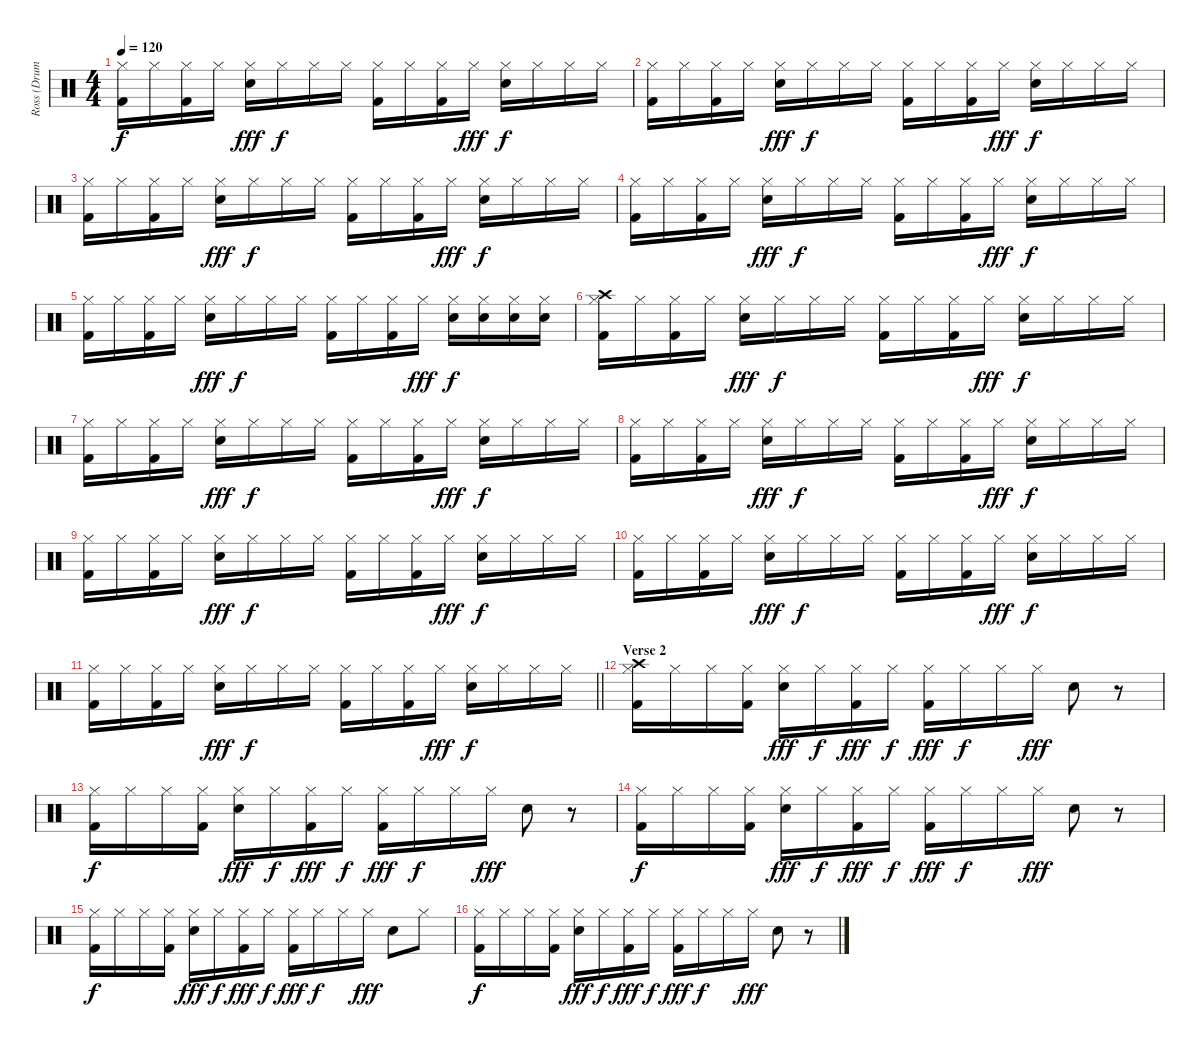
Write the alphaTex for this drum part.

\track ("Ross (Drums)" "Ross (Drum") {instrument percussion}
\staff {score}
\articulation defaults
\ts (4 4)
\tempo 120
\clef neutral
\ks c
("Hi-Hat (closed)" "Kick (hit) 2").16{dy f} "Hi-Hat (closed)".16 ("Hi-Hat (closed)" "Kick (hit) 2").16 "Hi-Hat (closed)".16 ("Hi-Hat (closed)" "Snare (hit) 2").16{dy fff} "Hi-Hat (closed)".16{dy f} "Hi-Hat (closed)".16 "Hi-Hat (closed)".16 ("Hi-Hat (closed)" "Kick (hit) 2").16 "Hi-Hat (closed)".16 ("Hi-Hat (closed)" "Kick (hit) 2").16 "Hi-Hat (closed)".16{dy fff} ("Hi-Hat (closed)" "Snare (hit) 2").16{dy f} "Hi-Hat (closed)".16 "Hi-Hat (closed)".16 "Hi-Hat (closed)".16 |
("Hi-Hat (closed)" "Kick (hit) 2").16 "Hi-Hat (closed)".16 ("Hi-Hat (closed)" "Kick (hit) 2").16 "Hi-Hat (closed)".16 ("Hi-Hat (closed)" "Snare (hit) 2").16{dy fff} "Hi-Hat (closed)".16{dy f} "Hi-Hat (closed)".16 "Hi-Hat (closed)".16 ("Hi-Hat (closed)" "Kick (hit) 2").16 "Hi-Hat (closed)".16 ("Hi-Hat (closed)" "Kick (hit) 2").16 "Hi-Hat (closed)".16{dy fff} ("Hi-Hat (closed)" "Snare (hit) 2").16{dy f} "Hi-Hat (closed)".16 "Hi-Hat (closed)".16 "Hi-Hat (closed)".16 |
("Hi-Hat (closed)" "Kick (hit) 2").16 "Hi-Hat (closed)".16 ("Hi-Hat (closed)" "Kick (hit) 2").16 "Hi-Hat (closed)".16 ("Hi-Hat (closed)" "Snare (hit) 2").16{dy fff} "Hi-Hat (closed)".16{dy f} "Hi-Hat (closed)".16 "Hi-Hat (closed)".16 ("Hi-Hat (closed)" "Kick (hit) 2").16 "Hi-Hat (closed)".16 ("Hi-Hat (closed)" "Kick (hit) 2").16 "Hi-Hat (closed)".16{dy fff} ("Hi-Hat (closed)" "Snare (hit) 2").16{dy f} "Hi-Hat (closed)".16 "Hi-Hat (closed)".16 "Hi-Hat (closed)".16 |
("Hi-Hat (closed)" "Kick (hit) 2").16 "Hi-Hat (closed)".16 ("Hi-Hat (closed)" "Kick (hit) 2").16 "Hi-Hat (closed)".16 ("Hi-Hat (closed)" "Snare (hit) 2").16{dy fff} "Hi-Hat (closed)".16{dy f} "Hi-Hat (closed)".16 "Hi-Hat (closed)".16 ("Hi-Hat (closed)" "Kick (hit) 2").16 "Hi-Hat (closed)".16 ("Hi-Hat (closed)" "Kick (hit) 2").16 "Hi-Hat (closed)".16{dy fff} ("Hi-Hat (closed)" "Snare (hit) 2").16{dy f} "Hi-Hat (closed)".16 "Hi-Hat (closed)".16 "Hi-Hat (closed)".16 |
("Hi-Hat (closed)" "Kick (hit) 2").16 "Hi-Hat (closed)".16 ("Hi-Hat (closed)" "Kick (hit) 2").16 "Hi-Hat (closed)".16 ("Hi-Hat (closed)" "Snare (hit) 2").16{dy fff} "Hi-Hat (closed)".16{dy f} "Hi-Hat (closed)".16 "Hi-Hat (closed)".16 ("Hi-Hat (closed)" "Kick (hit) 2").16 "Hi-Hat (closed)".16 ("Hi-Hat (closed)" "Kick (hit) 2").16 "Hi-Hat (closed)".16{dy fff} ("Hi-Hat (closed)" "Snare (hit) 2").16{dy f} ("Hi-Hat (closed)" "Snare (hit) 2").16 ("Hi-Hat (closed)" "Snare (hit) 2").16 ("Hi-Hat (closed)" "Snare (hit) 2").16 |
("Crash high (hit)" "Hi-Hat (closed)" "Kick (hit) 2").16 "Hi-Hat (closed)".16 ("Hi-Hat (closed)" "Kick (hit) 2").16 "Hi-Hat (closed)".16 ("Hi-Hat (closed)" "Snare (hit) 2").16{dy fff} "Hi-Hat (closed)".16{dy f} "Hi-Hat (closed)".16 "Hi-Hat (closed)".16 ("Hi-Hat (closed)" "Kick (hit) 2").16 "Hi-Hat (closed)".16 ("Hi-Hat (closed)" "Kick (hit) 2").16 "Hi-Hat (closed)".16{dy fff} ("Hi-Hat (closed)" "Snare (hit) 2").16{dy f} "Hi-Hat (closed)".16 "Hi-Hat (closed)".16 "Hi-Hat (closed)".16 |
("Hi-Hat (closed)" "Kick (hit) 2").16 "Hi-Hat (closed)".16 ("Hi-Hat (closed)" "Kick (hit) 2").16 "Hi-Hat (closed)".16 ("Hi-Hat (closed)" "Snare (hit) 2").16{dy fff} "Hi-Hat (closed)".16{dy f} "Hi-Hat (closed)".16 "Hi-Hat (closed)".16 ("Hi-Hat (closed)" "Kick (hit) 2").16 "Hi-Hat (closed)".16 ("Hi-Hat (closed)" "Kick (hit) 2").16 "Hi-Hat (closed)".16{dy fff} ("Hi-Hat (closed)" "Snare (hit) 2").16{dy f} "Hi-Hat (closed)".16 "Hi-Hat (closed)".16 "Hi-Hat (closed)".16 |
("Hi-Hat (closed)" "Kick (hit) 2").16 "Hi-Hat (closed)".16 ("Hi-Hat (closed)" "Kick (hit) 2").16 "Hi-Hat (closed)".16 ("Hi-Hat (closed)" "Snare (hit) 2").16{dy fff} "Hi-Hat (closed)".16{dy f} "Hi-Hat (closed)".16 "Hi-Hat (closed)".16 ("Hi-Hat (closed)" "Kick (hit) 2").16 "Hi-Hat (closed)".16 ("Hi-Hat (closed)" "Kick (hit) 2").16 "Hi-Hat (closed)".16{dy fff} ("Hi-Hat (closed)" "Snare (hit) 2").16{dy f} "Hi-Hat (closed)".16 "Hi-Hat (closed)".16 "Hi-Hat (closed)".16 |
("Hi-Hat (closed)" "Kick (hit) 2").16 "Hi-Hat (closed)".16 ("Hi-Hat (closed)" "Kick (hit) 2").16 "Hi-Hat (closed)".16 ("Hi-Hat (closed)" "Snare (hit) 2").16{dy fff} "Hi-Hat (closed)".16{dy f} "Hi-Hat (closed)".16 "Hi-Hat (closed)".16 ("Hi-Hat (closed)" "Kick (hit) 2").16 "Hi-Hat (closed)".16 ("Hi-Hat (closed)" "Kick (hit) 2").16 "Hi-Hat (closed)".16{dy fff} ("Hi-Hat (closed)" "Snare (hit) 2").16{dy f} "Hi-Hat (closed)".16 "Hi-Hat (closed)".16 "Hi-Hat (closed)".16 |
("Hi-Hat (closed)" "Kick (hit) 2").16 "Hi-Hat (closed)".16 ("Hi-Hat (closed)" "Kick (hit) 2").16 "Hi-Hat (closed)".16 ("Hi-Hat (closed)" "Snare (hit) 2").16{dy fff} "Hi-Hat (closed)".16{dy f} "Hi-Hat (closed)".16 "Hi-Hat (closed)".16 ("Hi-Hat (closed)" "Kick (hit) 2").16 "Hi-Hat (closed)".16 ("Hi-Hat (closed)" "Kick (hit) 2").16 "Hi-Hat (closed)".16{dy fff} ("Hi-Hat (closed)" "Snare (hit) 2").16{dy f} "Hi-Hat (closed)".16 "Hi-Hat (closed)".16 "Hi-Hat (closed)".16 |
\barLineRight lightlight
("Hi-Hat (closed)" "Kick (hit) 2").16 "Hi-Hat (closed)".16 ("Hi-Hat (closed)" "Kick (hit) 2").16 "Hi-Hat (closed)".16 ("Hi-Hat (closed)" "Snare (hit) 2").16{dy fff} "Hi-Hat (closed)".16{dy f} "Hi-Hat (closed)".16 "Hi-Hat (closed)".16 ("Hi-Hat (closed)" "Kick (hit) 2").16 "Hi-Hat (closed)".16 ("Hi-Hat (closed)" "Kick (hit) 2").16 "Hi-Hat (closed)".16{dy fff} ("Hi-Hat (closed)" "Snare (hit) 2").16{dy f} "Hi-Hat (closed)".16 "Hi-Hat (closed)".16 "Hi-Hat (closed)".16 |
\section ("" "Verse 2")
("Crash high (hit)" "Hi-Hat (closed)" "Kick (hit) 2").16 "Hi-Hat (closed)".16 "Hi-Hat (closed)".16 ("Hi-Hat (closed)" "Kick (hit) 2").16 ("Hi-Hat (closed)" "Snare (hit) 2").16{dy fff} "Hi-Hat (closed)".16{dy f} ("Hi-Hat (closed)" "Kick (hit) 2").16{dy fff} "Hi-Hat (closed)".16{dy f} ("Hi-Hat (closed)" "Kick (hit) 2").16{dy fff} "Hi-Hat (closed)".16{dy f} "Hi-Hat (closed)".16 "Hi-Hat (closed)".16{dy fff} "Snare (hit) 2".8 r.8 |
("Hi-Hat (closed)" "Kick (hit) 2").16{dy f} "Hi-Hat (closed)".16 "Hi-Hat (closed)".16 ("Hi-Hat (closed)" "Kick (hit) 2").16 ("Hi-Hat (closed)" "Snare (hit) 2").16{dy fff} "Hi-Hat (closed)".16{dy f} ("Hi-Hat (closed)" "Kick (hit) 2").16{dy fff} "Hi-Hat (closed)".16{dy f} ("Hi-Hat (closed)" "Kick (hit) 2").16{dy fff} "Hi-Hat (closed)".16{dy f} "Hi-Hat (closed)".16 "Hi-Hat (closed)".16{dy fff} "Snare (hit) 2".8 r.8 |
("Hi-Hat (closed)" "Kick (hit) 2").16{dy f} "Hi-Hat (closed)".16 "Hi-Hat (closed)".16 ("Hi-Hat (closed)" "Kick (hit) 2").16 ("Hi-Hat (closed)" "Snare (hit) 2").16{dy fff} "Hi-Hat (closed)".16{dy f} ("Hi-Hat (closed)" "Kick (hit) 2").16{dy fff} "Hi-Hat (closed)".16{dy f} ("Hi-Hat (closed)" "Kick (hit) 2").16{dy fff} "Hi-Hat (closed)".16{dy f} "Hi-Hat (closed)".16 "Hi-Hat (closed)".16{dy fff} "Snare (hit) 2".8 r.8 |
("Hi-Hat (closed)" "Kick (hit) 2").16{dy f} "Hi-Hat (closed)".16 "Hi-Hat (closed)".16 ("Hi-Hat (closed)" "Kick (hit) 2").16 ("Hi-Hat (closed)" "Snare (hit) 2").16{dy fff} "Hi-Hat (closed)".16{dy f} ("Hi-Hat (closed)" "Kick (hit) 2").16{dy fff} "Hi-Hat (closed)".16{dy f} ("Hi-Hat (closed)" "Kick (hit) 2").16{dy fff} "Hi-Hat (closed)".16{dy f} "Hi-Hat (closed)".16 "Hi-Hat (closed)".16{dy fff} "Snare (hit) 2".8 "Hi-Hat (closed)".8 |
("Hi-Hat (closed)" "Kick (hit) 2").16{dy f} "Hi-Hat (closed)".16 "Hi-Hat (closed)".16 ("Hi-Hat (closed)" "Kick (hit) 2").16 ("Hi-Hat (closed)" "Snare (hit) 2").16{dy fff} "Hi-Hat (closed)".16{dy f} ("Hi-Hat (closed)" "Kick (hit) 2").16{dy fff} "Hi-Hat (closed)".16{dy f} ("Hi-Hat (closed)" "Kick (hit) 2").16{dy fff} "Hi-Hat (closed)".16{dy f} "Hi-Hat (closed)".16 "Hi-Hat (closed)".16{dy fff} "Snare (hit) 2".8 r.8
